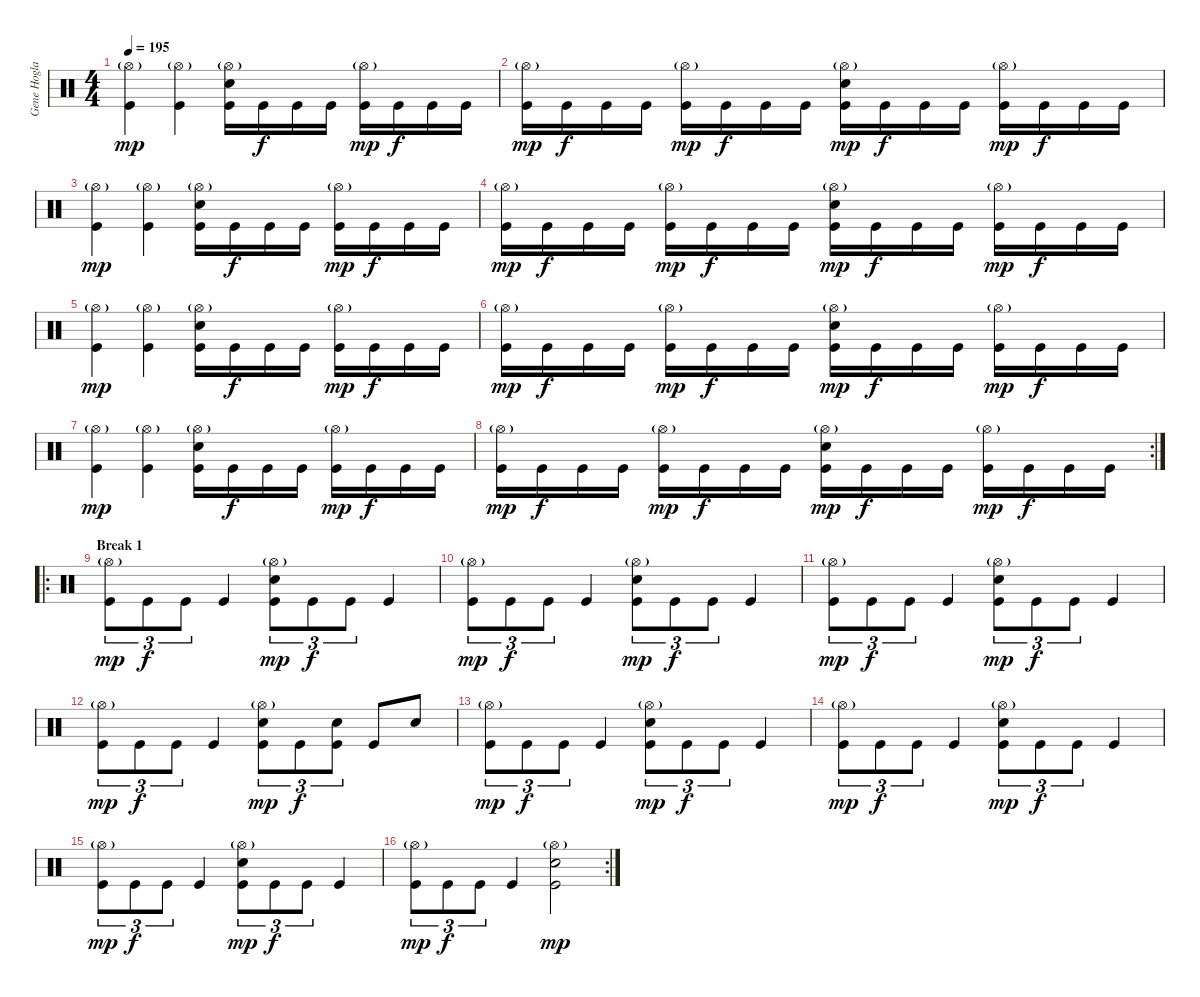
\track ("Gene Hoglan" "Gene Hogla") {instrument percussion}
\staff {score}
\articulation defaults
\ts (4 4)
\tempo 195
\clef neutral
\ks c
("Hi-Hat (open)"{g} "Kick (hit)").4{dy mp} ("Hi-Hat (open)"{g} "Kick (hit)").4 ("Hi-Hat (open)"{g} "Electric Snare (hit)" "Kick (hit)").16 "Kick (hit)".16{dy f} "Kick (hit)".16 "Kick (hit)".16 ("Hi-Hat (open)"{g} "Kick (hit)").16{dy mp} "Kick (hit)".16{dy f} "Kick (hit)".16 "Kick (hit)".16 |
("Hi-Hat (open)"{g} "Kick (hit)").16{dy mp} "Kick (hit)".16{dy f} "Kick (hit)".16 "Kick (hit)".16 ("Hi-Hat (open)"{g} "Kick (hit)").16{dy mp} "Kick (hit)".16{dy f} "Kick (hit)".16 "Kick (hit)".16 ("Hi-Hat (open)"{g} "Electric Snare (hit)" "Kick (hit)").16{dy mp} "Kick (hit)".16{dy f} "Kick (hit)".16 "Kick (hit)".16 ("Hi-Hat (open)"{g} "Kick (hit)").16{dy mp} "Kick (hit)".16{dy f} "Kick (hit)".16 "Kick (hit)".16 |
("Hi-Hat (open)"{g} "Kick (hit)").4{dy mp} ("Hi-Hat (open)"{g} "Kick (hit)").4 ("Hi-Hat (open)"{g} "Electric Snare (hit)" "Kick (hit)").16 "Kick (hit)".16{dy f} "Kick (hit)".16 "Kick (hit)".16 ("Hi-Hat (open)"{g} "Kick (hit)").16{dy mp} "Kick (hit)".16{dy f} "Kick (hit)".16 "Kick (hit)".16 |
("Hi-Hat (open)"{g} "Kick (hit)").16{dy mp} "Kick (hit)".16{dy f} "Kick (hit)".16 "Kick (hit)".16 ("Hi-Hat (open)"{g} "Kick (hit)").16{dy mp} "Kick (hit)".16{dy f} "Kick (hit)".16 "Kick (hit)".16 ("Hi-Hat (open)"{g} "Electric Snare (hit)" "Kick (hit)").16{dy mp} "Kick (hit)".16{dy f} "Kick (hit)".16 "Kick (hit)".16 ("Hi-Hat (open)"{g} "Kick (hit)").16{dy mp} "Kick (hit)".16{dy f} "Kick (hit)".16 "Kick (hit)".16 |
("Hi-Hat (open)"{g} "Kick (hit)").4{dy mp} ("Hi-Hat (open)"{g} "Kick (hit)").4 ("Hi-Hat (open)"{g} "Electric Snare (hit)" "Kick (hit)").16 "Kick (hit)".16{dy f} "Kick (hit)".16 "Kick (hit)".16 ("Hi-Hat (open)"{g} "Kick (hit)").16{dy mp} "Kick (hit)".16{dy f} "Kick (hit)".16 "Kick (hit)".16 |
("Hi-Hat (open)"{g} "Kick (hit)").16{dy mp} "Kick (hit)".16{dy f} "Kick (hit)".16 "Kick (hit)".16 ("Hi-Hat (open)"{g} "Kick (hit)").16{dy mp} "Kick (hit)".16{dy f} "Kick (hit)".16 "Kick (hit)".16 ("Hi-Hat (open)"{g} "Electric Snare (hit)" "Kick (hit)").16{dy mp} "Kick (hit)".16{dy f} "Kick (hit)".16 "Kick (hit)".16 ("Hi-Hat (open)"{g} "Kick (hit)").16{dy mp} "Kick (hit)".16{dy f} "Kick (hit)".16 "Kick (hit)".16 |
("Hi-Hat (open)"{g} "Kick (hit)").4{dy mp} ("Hi-Hat (open)"{g} "Kick (hit)").4 ("Hi-Hat (open)"{g} "Electric Snare (hit)" "Kick (hit)").16 "Kick (hit)".16{dy f} "Kick (hit)".16 "Kick (hit)".16 ("Hi-Hat (open)"{g} "Kick (hit)").16{dy mp} "Kick (hit)".16{dy f} "Kick (hit)".16 "Kick (hit)".16 |
\rc 2
("Hi-Hat (open)"{g} "Kick (hit)").16{dy mp} "Kick (hit)".16{dy f} "Kick (hit)".16 "Kick (hit)".16 ("Hi-Hat (open)"{g} "Kick (hit)").16{dy mp} "Kick (hit)".16{dy f} "Kick (hit)".16 "Kick (hit)".16 ("Hi-Hat (open)"{g} "Electric Snare (hit)" "Kick (hit)").16{dy mp} "Kick (hit)".16{dy f} "Kick (hit)".16 "Kick (hit)".16 ("Hi-Hat (open)"{g} "Kick (hit)").16{dy mp} "Kick (hit)".16{dy f} "Kick (hit)".16 "Kick (hit)".16 |
\ro
\section ("" "Break 1")
("Hi-Hat (open)"{g} "Kick (hit)").8{tu (3 2) dy mp} "Kick (hit)".8{tu (3 2) dy f} "Kick (hit)".8{tu (3 2)} "Kick (hit)".4 ("Hi-Hat (open)"{g} "Electric Snare (hit)" "Kick (hit)").8{tu (3 2) dy mp} "Kick (hit)".8{tu (3 2) dy f} "Kick (hit)".8{tu (3 2)} "Kick (hit)".4 |
("Hi-Hat (open)"{g} "Kick (hit)").8{tu (3 2) dy mp} "Kick (hit)".8{tu (3 2) dy f} "Kick (hit)".8{tu (3 2)} "Kick (hit)".4 ("Hi-Hat (open)"{g} "Electric Snare (hit)" "Kick (hit)").8{tu (3 2) dy mp} "Kick (hit)".8{tu (3 2) dy f} "Kick (hit)".8{tu (3 2)} "Kick (hit)".4 |
("Hi-Hat (open)"{g} "Kick (hit)").8{tu (3 2) dy mp} "Kick (hit)".8{tu (3 2) dy f} "Kick (hit)".8{tu (3 2)} "Kick (hit)".4 ("Hi-Hat (open)"{g} "Electric Snare (hit)" "Kick (hit)").8{tu (3 2) dy mp} "Kick (hit)".8{tu (3 2) dy f} "Kick (hit)".8{tu (3 2)} "Kick (hit)".4 |
("Hi-Hat (open)"{g} "Kick (hit)").8{tu (3 2) dy mp} "Kick (hit)".8{tu (3 2) dy f} "Kick (hit)".8{tu (3 2)} "Kick (hit)".4 ("Hi-Hat (open)"{g} "Electric Snare (hit)" "Kick (hit)").8{tu (3 2) dy mp} "Kick (hit)".8{tu (3 2) dy f} ("Electric Snare (hit)" "Kick (hit)").8{tu (3 2)} "Kick (hit)".8 "Electric Snare (hit)".8 |
("Hi-Hat (open)"{g} "Kick (hit)").8{tu (3 2) dy mp} "Kick (hit)".8{tu (3 2) dy f} "Kick (hit)".8{tu (3 2)} "Kick (hit)".4 ("Hi-Hat (open)"{g} "Electric Snare (hit)" "Kick (hit)").8{tu (3 2) dy mp} "Kick (hit)".8{tu (3 2) dy f} "Kick (hit)".8{tu (3 2)} "Kick (hit)".4 |
("Hi-Hat (open)"{g} "Kick (hit)").8{tu (3 2) dy mp} "Kick (hit)".8{tu (3 2) dy f} "Kick (hit)".8{tu (3 2)} "Kick (hit)".4 ("Hi-Hat (open)"{g} "Electric Snare (hit)" "Kick (hit)").8{tu (3 2) dy mp} "Kick (hit)".8{tu (3 2) dy f} "Kick (hit)".8{tu (3 2)} "Kick (hit)".4 |
("Hi-Hat (open)"{g} "Kick (hit)").8{tu (3 2) dy mp} "Kick (hit)".8{tu (3 2) dy f} "Kick (hit)".8{tu (3 2)} "Kick (hit)".4 ("Hi-Hat (open)"{g} "Electric Snare (hit)" "Kick (hit)").8{tu (3 2) dy mp} "Kick (hit)".8{tu (3 2) dy f} "Kick (hit)".8{tu (3 2)} "Kick (hit)".4 |
\rc 2
("Hi-Hat (open)"{g} "Kick (hit)").8{tu (3 2) dy mp} "Kick (hit)".8{tu (3 2) dy f} "Kick (hit)".8{tu (3 2)} "Kick (hit)".4 ("Hi-Hat (open)"{g} "Electric Snare (hit)" "Kick (hit)").2{dy mp}
